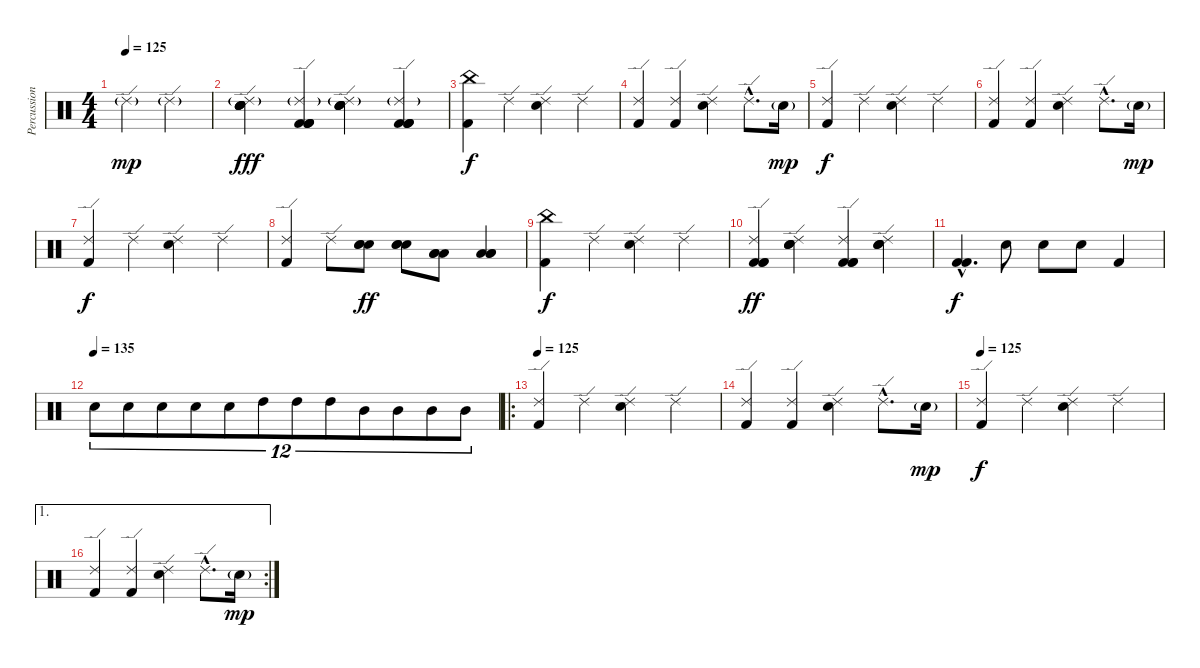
\track ("Percussion - Or" "Percussion") {instrument percussion}
\staff {score}
\articulation defaults
\ts (4 4)
\tempo 125
\clef neutral
\ks c "Ride (edge) 2"{g}.2{dy mp} "Ride (edge) 2"{g}.2
|
("Ride (edge) 2"{g} "Snare (hit) 2" "Snare (hit) 2" "Snare (hit) 2" "Snare (hit) 2").4{dy fff} ("Ride (edge) 2"{g} "Kick (hit) 2" "Kick (hit) 2" "Kick (hit) 2" "Kick (hit) 2").4 ("Ride (edge) 2"{g} "Snare (hit) 2" "Snare (hit) 2" "Snare (hit) 2" "Snare (hit) 2").4 ("Ride (edge) 2"{g} "Kick (hit) 2" "Kick (hit) 2" "Kick (hit) 2" "Kick (hit) 2").4 |
("China (hit)" "Kick (hit) 2").4{dy f} "Ride (edge) 2".4 ("Ride (edge) 2" "Snare (hit) 2").4 "Ride (edge) 2".4 |
("Ride (edge) 2" "Kick (hit) 2").4 ("Ride (edge) 2" "Kick (hit) 2").4 ("Ride (edge) 2" "Snare (hit) 2").4 "Ride (edge) 2"{hac}.8{d} "Snare (hit) 2"{g}.16{dy mp} |
("Ride (edge) 2" "Kick (hit) 2").4{dy f} "Ride (edge) 2".4 ("Ride (edge) 2" "Snare (hit) 2").4 "Ride (edge) 2".4 |
("Ride (edge) 2" "Kick (hit) 2").4 ("Ride (edge) 2" "Kick (hit) 2").4 ("Ride (edge) 2" "Snare (hit) 2").4 "Ride (edge) 2"{hac}.8{d} "Snare (hit) 2"{g}.16{dy mp} |
("Ride (edge) 2" "Kick (hit) 2").4{dy f} "Ride (edge) 2".4 ("Ride (edge) 2" "Snare (hit) 2").4 "Ride (edge) 2".4 |
("Ride (edge) 2" "Kick (hit) 2").4 "Ride (edge) 2".8 ("Snare (hit) 2" "Snare (hit) 2" "Snare (hit) 2").8{dy ff} ("Snare (hit) 2" "Snare (hit) 2" "Snare (hit) 2").8 ("Low Tom (hit)" "Low Tom (hit)" "Low Tom (hit)").8 ("Low Tom (hit)" "Low Tom (hit)" "Low Tom (hit)").4 |
("China (hit)" "Kick (hit) 2").4{dy f} "Ride (edge) 2".4 ("Ride (edge) 2" "Snare (hit) 2").4 "Ride (edge) 2".4 |
("Ride (edge) 2" "Kick (hit) 2" "Kick (hit) 2" "Kick (hit) 2").4{dy ff} ("Ride (edge) 2" "Snare (hit) 2" "Snare (hit) 2" "Snare (hit) 2").4 ("Ride (edge) 2" "Kick (hit) 2" "Kick (hit) 2" "Kick (hit) 2").4 ("Ride (edge) 2" "Snare (hit) 2" "Snare (hit) 2" "Snare (hit) 2").4 |
("Kick (hit) 2"{hac} "Kick (hit) 2"{hac}).4{d dy f} "Snare (hit) 2".8 "Snare (hit) 2".8 "Snare (hit) 2".8 "Kick (hit) 2".4 |
\tempo 125
\tempo (135)
"Snare (hit) 2".8{tu (12 8)} "Snare (hit) 2".8{tu (12 8)} "Snare (hit) 2".8{tu (12 8)} "Snare (hit) 2".8{tu (12 8)} "Snare (hit) 2".8{tu (12 8)} "High Tom (hit)".8{tu (12 8)} "High Tom (hit)".8{tu (12 8)} "High Tom (hit)".8{tu (12 8)} "Mid Tom (hit)".8{tu (12 8)} "Mid Tom (hit)".8{tu (12 8)} "Mid Tom (hit)".8{tu (12 8)} "Mid Tom (hit)".8{tu (12 8)} |
\ro
\tempo 125
("Ride (edge) 2" "Kick (hit) 2").4 "Ride (edge) 2".4 ("Ride (edge) 2" "Snare (hit) 2").4 "Ride (edge) 2".4 |
("Ride (edge) 2" "Kick (hit) 2").4 ("Ride (edge) 2" "Kick (hit) 2").4 ("Ride (edge) 2" "Snare (hit) 2").4 "Ride (edge) 2"{hac}.8{d} "Snare (hit) 2"{g}.16{dy mp} |
\tempo 125
("Ride (edge) 2" "Kick (hit) 2").4{dy f} "Ride (edge) 2".4 ("Ride (edge) 2" "Snare (hit) 2").4 "Ride (edge) 2".4 |
\ae 1
\rc 2
("Ride (edge) 2" "Kick (hit) 2").4 ("Ride (edge) 2" "Kick (hit) 2").4 ("Ride (edge) 2" "Snare (hit) 2").4 "Ride (edge) 2"{hac}.8{d} "Snare (hit) 2"{g}.16{dy mp}
